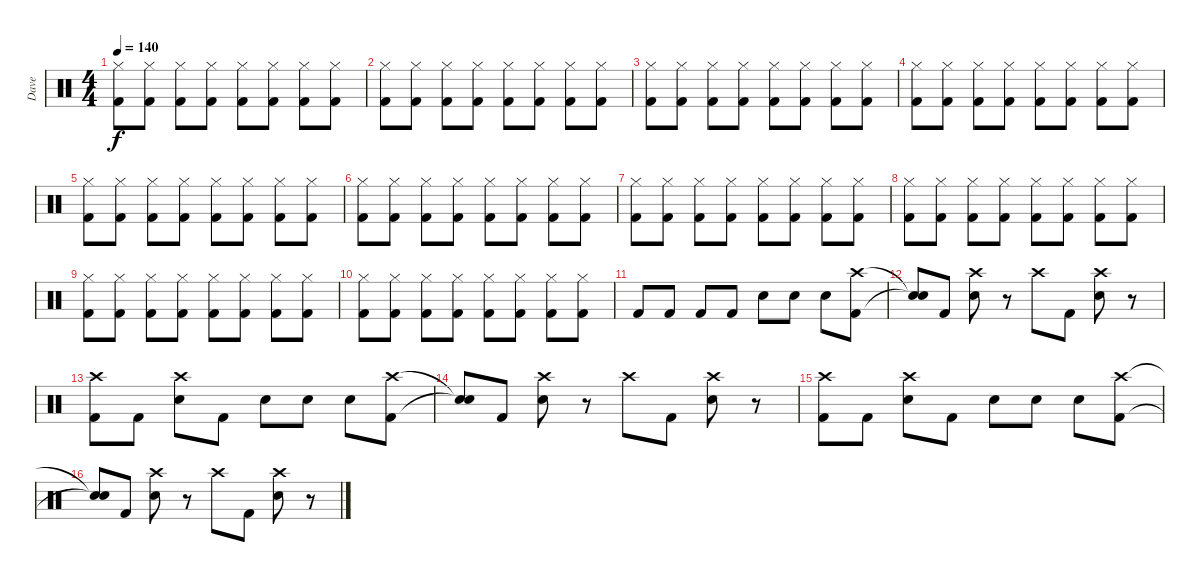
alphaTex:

\track ("Dave" "Dave") {instrument percussion}
\staff {score}
\articulation defaults
\ts (4 4)
\tempo 140
\clef neutral
\ks c
("Hi-Hat (closed)" "Kick (hit) 2").8{dy f} ("Hi-Hat (closed)" "Kick (hit) 2").8 ("Hi-Hat (closed)" "Kick (hit) 2").8 ("Hi-Hat (closed)" "Kick (hit) 2").8 ("Hi-Hat (closed)" "Kick (hit) 2").8 ("Hi-Hat (closed)" "Kick (hit) 2").8 ("Hi-Hat (closed)" "Kick (hit) 2").8 ("Hi-Hat (closed)" "Kick (hit) 2").8 |
("Hi-Hat (closed)" "Kick (hit) 2").8 ("Hi-Hat (closed)" "Kick (hit) 2").8 ("Hi-Hat (closed)" "Kick (hit) 2").8 ("Hi-Hat (closed)" "Kick (hit) 2").8 ("Hi-Hat (closed)" "Kick (hit) 2").8 ("Hi-Hat (closed)" "Kick (hit) 2").8 ("Hi-Hat (closed)" "Kick (hit) 2").8 ("Hi-Hat (closed)" "Kick (hit) 2").8 |
("Hi-Hat (closed)" "Kick (hit) 2").8 ("Hi-Hat (closed)" "Kick (hit) 2").8 ("Hi-Hat (closed)" "Kick (hit) 2").8 ("Hi-Hat (closed)" "Kick (hit) 2").8 ("Hi-Hat (closed)" "Kick (hit) 2").8 ("Hi-Hat (closed)" "Kick (hit) 2").8 ("Hi-Hat (closed)" "Kick (hit) 2").8 ("Hi-Hat (closed)" "Kick (hit) 2").8 |
("Hi-Hat (closed)" "Kick (hit) 2").8 ("Hi-Hat (closed)" "Kick (hit) 2").8 ("Hi-Hat (closed)" "Kick (hit) 2").8 ("Hi-Hat (closed)" "Kick (hit) 2").8 ("Hi-Hat (closed)" "Kick (hit) 2").8 ("Hi-Hat (closed)" "Kick (hit) 2").8 ("Hi-Hat (closed)" "Kick (hit) 2").8 ("Hi-Hat (closed)" "Kick (hit) 2").8 |
("Hi-Hat (closed)" "Kick (hit) 2").8 ("Hi-Hat (closed)" "Kick (hit) 2").8 ("Hi-Hat (closed)" "Kick (hit) 2").8 ("Hi-Hat (closed)" "Kick (hit) 2").8 ("Hi-Hat (closed)" "Kick (hit) 2").8 ("Hi-Hat (closed)" "Kick (hit) 2").8 ("Hi-Hat (closed)" "Kick (hit) 2").8 ("Hi-Hat (closed)" "Kick (hit) 2").8 |
("Hi-Hat (closed)" "Kick (hit) 2").8 ("Hi-Hat (closed)" "Kick (hit) 2").8 ("Hi-Hat (closed)" "Kick (hit) 2").8 ("Hi-Hat (closed)" "Kick (hit) 2").8 ("Hi-Hat (closed)" "Kick (hit) 2").8 ("Hi-Hat (closed)" "Kick (hit) 2").8 ("Hi-Hat (closed)" "Kick (hit) 2").8 ("Hi-Hat (closed)" "Kick (hit) 2").8 |
("Hi-Hat (closed)" "Kick (hit) 2").8 ("Hi-Hat (closed)" "Kick (hit) 2").8 ("Hi-Hat (closed)" "Kick (hit) 2").8 ("Hi-Hat (closed)" "Kick (hit) 2").8 ("Hi-Hat (closed)" "Kick (hit) 2").8 ("Hi-Hat (closed)" "Kick (hit) 2").8 ("Hi-Hat (closed)" "Kick (hit) 2").8 ("Hi-Hat (closed)" "Kick (hit) 2").8 |
("Hi-Hat (closed)" "Kick (hit) 2").8 ("Hi-Hat (closed)" "Kick (hit) 2").8 ("Hi-Hat (closed)" "Kick (hit) 2").8 ("Hi-Hat (closed)" "Kick (hit) 2").8 ("Hi-Hat (closed)" "Kick (hit) 2").8 ("Hi-Hat (closed)" "Kick (hit) 2").8 ("Hi-Hat (closed)" "Kick (hit) 2").8 ("Hi-Hat (closed)" "Kick (hit) 2").8 |
("Hi-Hat (closed)" "Kick (hit) 2").8 ("Hi-Hat (closed)" "Kick (hit) 2").8 ("Hi-Hat (closed)" "Kick (hit) 2").8 ("Hi-Hat (closed)" "Kick (hit) 2").8 ("Hi-Hat (closed)" "Kick (hit) 2").8 ("Hi-Hat (closed)" "Kick (hit) 2").8 ("Hi-Hat (closed)" "Kick (hit) 2").8 ("Hi-Hat (closed)" "Kick (hit) 2").8 |
("Hi-Hat (closed)" "Kick (hit) 2").8 ("Hi-Hat (closed)" "Kick (hit) 2").8 ("Hi-Hat (closed)" "Kick (hit) 2").8 ("Hi-Hat (closed)" "Kick (hit) 2").8 ("Hi-Hat (closed)" "Kick (hit) 2").8 ("Hi-Hat (closed)" "Kick (hit) 2").8 ("Hi-Hat (closed)" "Kick (hit) 2").8 ("Hi-Hat (closed)" "Kick (hit) 2").8 |
"Kick (hit) 2".8 "Kick (hit) 2".8 "Kick (hit) 2".8 "Kick (hit) 2".8 "Snare (hit) 2".8 "Snare (hit) 2".8 "Snare (hit) 2".8 ("Crash high (hit)" "Kick (hit) 2").8 |
("Snare (hit)"{t} "Snare (hit)"{t}).8 "Kick (hit) 2".8 ("Crash high (hit)" "Snare (hit) 2").8 r.8 "Crash high (hit)".8 "Kick (hit) 2".8 ("Crash high (hit)" "Snare (hit) 2").8 r.8 |
("Crash high (hit)" "Kick (hit) 2").8 "Kick (hit) 2".8 ("Crash high (hit)" "Snare (hit) 2").8 "Kick (hit) 2".8 "Snare (hit) 2".8 "Snare (hit) 2".8 "Snare (hit) 2".8 ("Crash high (hit)" "Kick (hit) 2").8 |
("Snare (hit)"{t} "Snare (hit)"{t}).8 "Kick (hit) 2".8 ("Crash high (hit)" "Snare (hit) 2").8 r.8 "Crash high (hit)".8 "Kick (hit) 2".8 ("Crash high (hit)" "Snare (hit) 2").8 r.8 |
("Crash high (hit)" "Kick (hit) 2").8 "Kick (hit) 2".8 ("Crash high (hit)" "Snare (hit) 2").8 "Kick (hit) 2".8 "Snare (hit) 2".8 "Snare (hit) 2".8 "Snare (hit) 2".8 ("Crash high (hit)" "Kick (hit) 2").8 |
("Snare (hit)"{t} "Snare (hit)"{t}).8 "Kick (hit) 2".8 ("Crash high (hit)" "Snare (hit) 2").8 r.8 "Crash high (hit)".8 "Kick (hit) 2".8 ("Crash high (hit)" "Snare (hit) 2").8 r.8
